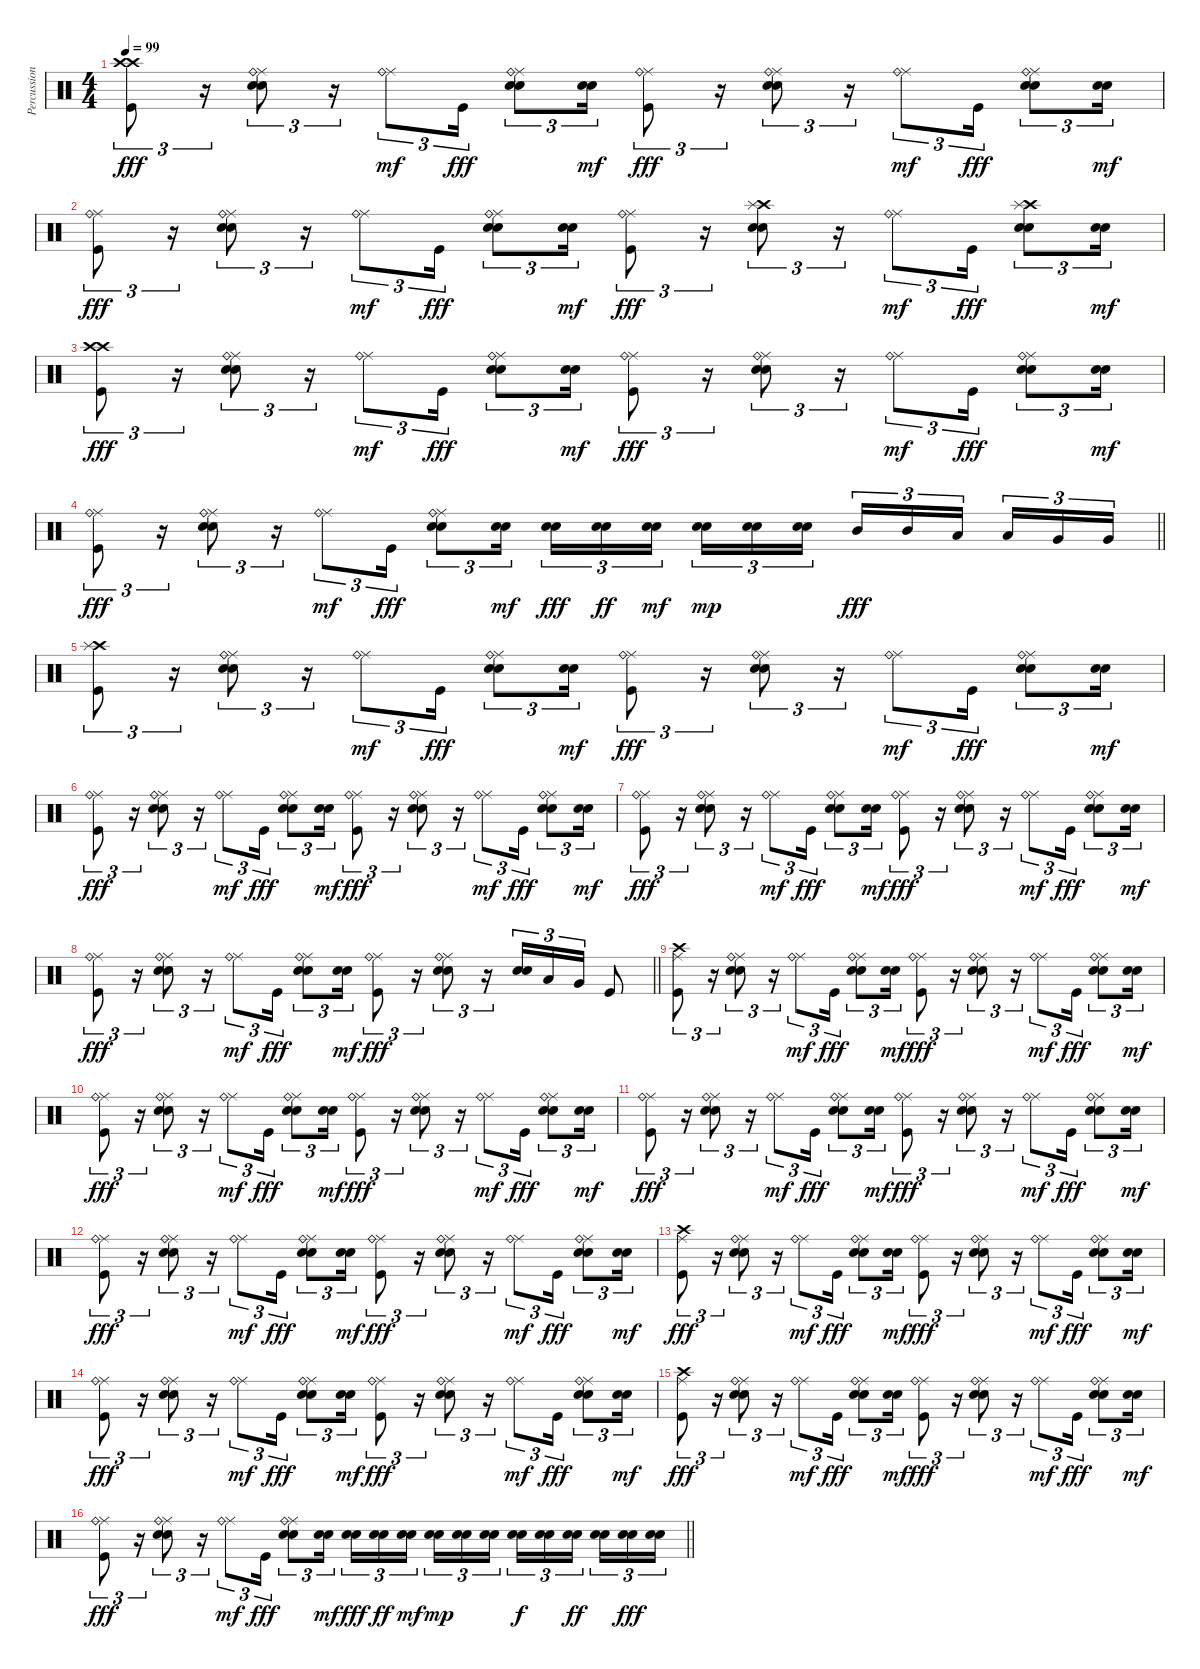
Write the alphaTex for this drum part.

\track ("Percussion" "Percussion") {instrument percussion}
\staff {score}
\articulation defaults
\ts (4 4)
\tempo 99
\clef neutral
\ks c
("Crash high (hit)" "Crash high (hit)" "Kick (hit)").8{tu (3 2) dy fff} r.16{tu (3 2)} ("Ride (middle)" "Ride (bell)" "Snare (hit) 2" "Electric Snare (hit)").8{tu (3 2)} r.16{tu (3 2)} ("Ride (middle)" "Ride (bell)").8{tu (3 2) dy mf} "Kick (hit)".16{tu (3 2) dy fff} ("Ride (middle)" "Ride (bell)" "Snare (hit) 2" "Electric Snare (hit)").8{tu (3 2)} ("Snare (hit) 2" "Electric Snare (hit)").16{tu (3 2) dy mf} ("Ride (middle)" "Ride (bell)" "Kick (hit)").8{tu (3 2) dy fff} r.16{tu (3 2)} ("Ride (middle)" "Ride (bell)" "Snare (hit) 2" "Electric Snare (hit)").8{tu (3 2)} r.16{tu (3 2)} ("Ride (middle)" "Ride (bell)").8{tu (3 2) dy mf} "Kick (hit)".16{tu (3 2) dy fff} ("Ride (middle)" "Ride (bell)" "Snare (hit) 2" "Electric Snare (hit)").8{tu (3 2)} ("Snare (hit) 2" "Electric Snare (hit)").16{tu (3 2) dy mf} |
("Ride (middle)" "Ride (bell)" "Kick (hit)").8{tu (3 2) dy fff} r.16{tu (3 2)} ("Ride (middle)" "Ride (bell)" "Snare (hit) 2" "Electric Snare (hit)").8{tu (3 2)} r.16{tu (3 2)} ("Ride (middle)" "Ride (bell)").8{tu (3 2) dy mf} "Kick (hit)".16{tu (3 2) dy fff} ("Ride (middle)" "Ride (bell)" "Snare (hit) 2" "Electric Snare (hit)").8{tu (3 2)} ("Snare (hit) 2" "Electric Snare (hit)").16{tu (3 2) dy mf} ("Ride (middle)" "Ride (bell)" "Kick (hit)").8{tu (3 2) dy fff} r.16{tu (3 2)} ("Crash high (hit)" "Splash (hit)" "Snare (hit) 2" "Electric Snare (hit)").8{tu (3 2)} r.16{tu (3 2)} ("Ride (middle)" "Ride (bell)").8{tu (3 2) dy mf} "Kick (hit)".16{tu (3 2) dy fff} ("Crash high (hit)" "Splash (hit)" "Snare (hit) 2" "Electric Snare (hit)").8{tu (3 2)} ("Snare (hit) 2" "Electric Snare (hit)").16{tu (3 2) dy mf} |
("Crash high (hit)" "Crash high (hit)" "Kick (hit)").8{tu (3 2) dy fff} r.16{tu (3 2)} ("Ride (middle)" "Ride (bell)" "Snare (hit) 2" "Electric Snare (hit)").8{tu (3 2)} r.16{tu (3 2)} ("Ride (middle)" "Ride (bell)").8{tu (3 2) dy mf} "Kick (hit)".16{tu (3 2) dy fff} ("Ride (middle)" "Ride (bell)" "Snare (hit) 2" "Electric Snare (hit)").8{tu (3 2)} ("Snare (hit) 2" "Electric Snare (hit)").16{tu (3 2) dy mf} ("Ride (middle)" "Ride (bell)" "Kick (hit)").8{tu (3 2) dy fff} r.16{tu (3 2)} ("Ride (middle)" "Ride (bell)" "Snare (hit) 2" "Electric Snare (hit)").8{tu (3 2)} r.16{tu (3 2)} ("Ride (middle)" "Ride (bell)").8{tu (3 2) dy mf} "Kick (hit)".16{tu (3 2) dy fff} ("Ride (middle)" "Ride (bell)" "Snare (hit) 2" "Electric Snare (hit)").8{tu (3 2)} ("Snare (hit) 2" "Electric Snare (hit)").16{tu (3 2) dy mf} |
\barLineRight lightlight
("Ride (middle)" "Ride (bell)" "Kick (hit)").8{tu (3 2) dy fff} r.16{tu (3 2)} ("Ride (middle)" "Ride (bell)" "Snare (hit) 2" "Electric Snare (hit)").8{tu (3 2)} r.16{tu (3 2)} ("Ride (middle)" "Ride (bell)").8{tu (3 2) dy mf} "Kick (hit)".16{tu (3 2) dy fff} ("Ride (middle)" "Ride (bell)" "Snare (hit) 2" "Electric Snare (hit)").8{tu (3 2)} ("Snare (hit) 2" "Electric Snare (hit)").16{tu (3 2) dy mf} ("Snare (hit) 2" "Electric Snare (hit)").16{tu (3 2) dy fff} ("Snare (hit) 2" "Electric Snare (hit)").16{tu (3 2) dy ff} ("Snare (hit) 2" "Electric Snare (hit)").16{tu (3 2) dy mf beam splitsecondary} ("Snare (hit) 2" "Electric Snare (hit)").16{tu (3 2) dy mp} ("Snare (hit) 2" "Electric Snare (hit)").16{tu (3 2)} ("Snare (hit) 2" "Electric Snare (hit)").16{tu (3 2)} "Mid Tom (hit)".16{tu (3 2) dy fff} "Mid Tom (hit)".16{tu (3 2)} "Low Tom (hit)".16{tu (3 2) beam splitsecondary} "Low Tom (hit)".16{tu (3 2)} "Very Low Tom (hit)".16{tu (3 2)} "Very Low Tom (hit)".16{tu (3 2)} |
("Crash high (hit)" "Splash (hit)" "Kick (hit)").8{tu (3 2)} r.16{tu (3 2)} ("Ride (middle)" "Ride (bell)" "Snare (hit) 2" "Electric Snare (hit)").8{tu (3 2)} r.16{tu (3 2)} ("Ride (middle)" "Ride (bell)").8{tu (3 2) dy mf} "Kick (hit)".16{tu (3 2) dy fff} ("Ride (middle)" "Ride (bell)" "Snare (hit) 2" "Electric Snare (hit)").8{tu (3 2)} ("Snare (hit) 2" "Electric Snare (hit)").16{tu (3 2) dy mf} ("Ride (middle)" "Ride (bell)" "Kick (hit)").8{tu (3 2) dy fff} r.16{tu (3 2)} ("Ride (middle)" "Ride (bell)" "Snare (hit) 2" "Electric Snare (hit)").8{tu (3 2)} r.16{tu (3 2)} ("Ride (middle)" "Ride (bell)").8{tu (3 2) dy mf} "Kick (hit)".16{tu (3 2) dy fff} ("Ride (middle)" "Ride (bell)" "Snare (hit) 2" "Electric Snare (hit)").8{tu (3 2)} ("Snare (hit) 2" "Electric Snare (hit)").16{tu (3 2) dy mf} |
("Ride (middle)" "Ride (bell)" "Kick (hit)").8{tu (3 2) dy fff} r.16{tu (3 2)} ("Ride (middle)" "Ride (bell)" "Snare (hit) 2" "Electric Snare (hit)").8{tu (3 2)} r.16{tu (3 2)} ("Ride (middle)" "Ride (bell)").8{tu (3 2) dy mf} "Kick (hit)".16{tu (3 2) dy fff} ("Ride (middle)" "Ride (bell)" "Snare (hit) 2" "Electric Snare (hit)").8{tu (3 2)} ("Snare (hit) 2" "Electric Snare (hit)").16{tu (3 2) dy mf} ("Ride (middle)" "Ride (bell)" "Kick (hit)").8{tu (3 2) dy fff} r.16{tu (3 2)} ("Ride (middle)" "Ride (bell)" "Snare (hit) 2" "Electric Snare (hit)").8{tu (3 2)} r.16{tu (3 2)} ("Ride (middle)" "Ride (bell)").8{tu (3 2) dy mf} "Kick (hit)".16{tu (3 2) dy fff} ("Ride (middle)" "Ride (bell)" "Snare (hit) 2" "Electric Snare (hit)").8{tu (3 2)} ("Snare (hit) 2" "Electric Snare (hit)").16{tu (3 2) dy mf} |
("Ride (middle)" "Ride (bell)" "Kick (hit)").8{tu (3 2) dy fff} r.16{tu (3 2)} ("Ride (middle)" "Ride (bell)" "Snare (hit) 2" "Electric Snare (hit)").8{tu (3 2)} r.16{tu (3 2)} ("Ride (middle)" "Ride (bell)").8{tu (3 2) dy mf} "Kick (hit)".16{tu (3 2) dy fff} ("Ride (middle)" "Ride (bell)" "Snare (hit) 2" "Electric Snare (hit)").8{tu (3 2)} ("Snare (hit) 2" "Electric Snare (hit)").16{tu (3 2) dy mf} ("Ride (middle)" "Ride (bell)" "Kick (hit)").8{tu (3 2) dy fff} r.16{tu (3 2)} ("Ride (middle)" "Ride (bell)" "Snare (hit) 2" "Electric Snare (hit)").8{tu (3 2)} r.16{tu (3 2)} ("Ride (middle)" "Ride (bell)").8{tu (3 2) dy mf} "Kick (hit)".16{tu (3 2) dy fff} ("Ride (middle)" "Ride (bell)" "Snare (hit) 2" "Electric Snare (hit)").8{tu (3 2)} ("Snare (hit) 2" "Electric Snare (hit)").16{tu (3 2) dy mf} |
\barLineRight lightlight
("Ride (middle)" "Ride (bell)" "Kick (hit)").8{tu (3 2) dy fff} r.16{tu (3 2)} ("Ride (middle)" "Ride (bell)" "Snare (hit) 2" "Electric Snare (hit)").8{tu (3 2)} r.16{tu (3 2)} ("Ride (middle)" "Ride (bell)").8{tu (3 2) dy mf} "Kick (hit)".16{tu (3 2) dy fff} ("Ride (middle)" "Ride (bell)" "Snare (hit) 2" "Electric Snare (hit)").8{tu (3 2)} ("Snare (hit) 2" "Electric Snare (hit)").16{tu (3 2) dy mf} ("Ride (middle)" "Ride (bell)" "Kick (hit)").8{tu (3 2) dy fff} r.16{tu (3 2)} ("Ride (middle)" "Ride (bell)" "Snare (hit) 2" "Electric Snare (hit)").8{tu (3 2)} r.16{tu (3 2)} ("Snare (hit) 2" "Electric Snare (hit)").16{tu (3 2)} "Low Tom (hit)".16{tu (3 2)} "Very Low Tom (hit)".16{tu (3 2)} "Kick (hit)".8 |
("Ride (middle)" "Crash high (hit)" "Kick (hit)").8{tu (3 2)} r.16{tu (3 2)} ("Ride (middle)" "Ride (bell)" "Snare (hit) 2" "Electric Snare (hit)").8{tu (3 2)} r.16{tu (3 2)} ("Ride (middle)" "Ride (bell)").8{tu (3 2) dy mf} "Kick (hit)".16{tu (3 2) dy fff} ("Ride (middle)" "Ride (bell)" "Snare (hit) 2" "Electric Snare (hit)").8{tu (3 2)} ("Snare (hit) 2" "Electric Snare (hit)").16{tu (3 2) dy mf} ("Ride (middle)" "Ride (bell)" "Kick (hit)").8{tu (3 2) dy fff} r.16{tu (3 2)} ("Ride (middle)" "Ride (bell)" "Snare (hit) 2" "Electric Snare (hit)").8{tu (3 2)} r.16{tu (3 2)} ("Ride (middle)" "Ride (bell)").8{tu (3 2) dy mf} "Kick (hit)".16{tu (3 2) dy fff} ("Ride (middle)" "Ride (bell)" "Snare (hit) 2" "Electric Snare (hit)").8{tu (3 2)} ("Snare (hit) 2" "Electric Snare (hit)").16{tu (3 2) dy mf} |
("Ride (middle)" "Ride (bell)" "Kick (hit)").8{tu (3 2) dy fff} r.16{tu (3 2)} ("Ride (middle)" "Ride (bell)" "Snare (hit) 2" "Electric Snare (hit)").8{tu (3 2)} r.16{tu (3 2)} ("Ride (middle)" "Ride (bell)").8{tu (3 2) dy mf} "Kick (hit)".16{tu (3 2) dy fff} ("Ride (middle)" "Ride (bell)" "Snare (hit) 2" "Electric Snare (hit)").8{tu (3 2)} ("Snare (hit) 2" "Electric Snare (hit)").16{tu (3 2) dy mf} ("Ride (middle)" "Ride (bell)" "Kick (hit)").8{tu (3 2) dy fff} r.16{tu (3 2)} ("Ride (middle)" "Ride (bell)" "Snare (hit) 2" "Electric Snare (hit)").8{tu (3 2)} r.16{tu (3 2)} ("Ride (middle)" "Ride (bell)").8{tu (3 2) dy mf} "Kick (hit)".16{tu (3 2) dy fff} ("Ride (middle)" "Ride (bell)" "Snare (hit) 2" "Electric Snare (hit)").8{tu (3 2)} ("Snare (hit) 2" "Electric Snare (hit)").16{tu (3 2) dy mf} |
("Ride (middle)" "Ride (bell)" "Kick (hit)").8{tu (3 2) dy fff} r.16{tu (3 2)} ("Ride (middle)" "Ride (bell)" "Snare (hit) 2" "Electric Snare (hit)").8{tu (3 2)} r.16{tu (3 2)} ("Ride (middle)" "Ride (bell)").8{tu (3 2) dy mf} "Kick (hit)".16{tu (3 2) dy fff} ("Ride (middle)" "Ride (bell)" "Snare (hit) 2" "Electric Snare (hit)").8{tu (3 2)} ("Snare (hit) 2" "Electric Snare (hit)").16{tu (3 2) dy mf} ("Ride (middle)" "Ride (bell)" "Kick (hit)").8{tu (3 2) dy fff} r.16{tu (3 2)} ("Ride (middle)" "Ride (bell)" "Snare (hit) 2" "Electric Snare (hit)").8{tu (3 2)} r.16{tu (3 2)} ("Ride (middle)" "Ride (bell)").8{tu (3 2) dy mf} "Kick (hit)".16{tu (3 2) dy fff} ("Ride (middle)" "Ride (bell)" "Snare (hit) 2" "Electric Snare (hit)").8{tu (3 2)} ("Snare (hit) 2" "Electric Snare (hit)").16{tu (3 2) dy mf} |
("Ride (middle)" "Ride (bell)" "Kick (hit)").8{tu (3 2) dy fff} r.16{tu (3 2)} ("Ride (middle)" "Ride (bell)" "Snare (hit) 2" "Electric Snare (hit)").8{tu (3 2)} r.16{tu (3 2)} ("Ride (middle)" "Ride (bell)").8{tu (3 2) dy mf} "Kick (hit)".16{tu (3 2) dy fff} ("Ride (middle)" "Ride (bell)" "Snare (hit) 2" "Electric Snare (hit)").8{tu (3 2)} ("Snare (hit) 2" "Electric Snare (hit)").16{tu (3 2) dy mf} ("Ride (middle)" "Ride (bell)" "Kick (hit)").8{tu (3 2) dy fff} r.16{tu (3 2)} ("Ride (middle)" "Ride (bell)" "Snare (hit) 2" "Electric Snare (hit)").8{tu (3 2)} r.16{tu (3 2)} ("Ride (middle)" "Ride (bell)").8{tu (3 2) dy mf} "Kick (hit)".16{tu (3 2) dy fff} ("Ride (middle)" "Ride (bell)" "Snare (hit) 2" "Electric Snare (hit)").8{tu (3 2)} ("Snare (hit) 2" "Electric Snare (hit)").16{tu (3 2) dy mf} |
("Ride (middle)" "Crash high (hit)" "Kick (hit)").8{tu (3 2) dy fff} r.16{tu (3 2)} ("Ride (middle)" "Ride (bell)" "Snare (hit) 2" "Electric Snare (hit)").8{tu (3 2)} r.16{tu (3 2)} ("Ride (middle)" "Ride (bell)").8{tu (3 2) dy mf} "Kick (hit)".16{tu (3 2) dy fff} ("Ride (middle)" "Ride (bell)" "Snare (hit) 2" "Electric Snare (hit)").8{tu (3 2)} ("Snare (hit) 2" "Electric Snare (hit)").16{tu (3 2) dy mf} ("Ride (middle)" "Ride (bell)" "Kick (hit)").8{tu (3 2) dy fff} r.16{tu (3 2)} ("Ride (middle)" "Ride (bell)" "Snare (hit) 2" "Electric Snare (hit)").8{tu (3 2)} r.16{tu (3 2)} ("Ride (middle)" "Ride (bell)").8{tu (3 2) dy mf} "Kick (hit)".16{tu (3 2) dy fff} ("Ride (middle)" "Ride (bell)" "Snare (hit) 2" "Electric Snare (hit)").8{tu (3 2)} ("Snare (hit) 2" "Electric Snare (hit)").16{tu (3 2) dy mf} |
("Ride (middle)" "Ride (bell)" "Kick (hit)").8{tu (3 2) dy fff} r.16{tu (3 2)} ("Ride (middle)" "Ride (bell)" "Snare (hit) 2" "Electric Snare (hit)").8{tu (3 2)} r.16{tu (3 2)} ("Ride (middle)" "Ride (bell)").8{tu (3 2) dy mf} "Kick (hit)".16{tu (3 2) dy fff} ("Ride (middle)" "Ride (bell)" "Snare (hit) 2" "Electric Snare (hit)").8{tu (3 2)} ("Snare (hit) 2" "Electric Snare (hit)").16{tu (3 2) dy mf} ("Ride (middle)" "Ride (bell)" "Kick (hit)").8{tu (3 2) dy fff} r.16{tu (3 2)} ("Ride (middle)" "Ride (bell)" "Snare (hit) 2" "Electric Snare (hit)").8{tu (3 2)} r.16{tu (3 2)} ("Ride (middle)" "Ride (bell)").8{tu (3 2) dy mf} "Kick (hit)".16{tu (3 2) dy fff} ("Ride (middle)" "Ride (bell)" "Snare (hit) 2" "Electric Snare (hit)").8{tu (3 2)} ("Snare (hit) 2" "Electric Snare (hit)").16{tu (3 2) dy mf} |
("Ride (middle)" "Crash high (hit)" "Kick (hit)").8{tu (3 2) dy fff} r.16{tu (3 2)} ("Ride (middle)" "Ride (bell)" "Snare (hit) 2" "Electric Snare (hit)").8{tu (3 2)} r.16{tu (3 2)} ("Ride (middle)" "Ride (bell)").8{tu (3 2) dy mf} "Kick (hit)".16{tu (3 2) dy fff} ("Ride (middle)" "Ride (bell)" "Snare (hit) 2" "Electric Snare (hit)").8{tu (3 2)} ("Snare (hit) 2" "Electric Snare (hit)").16{tu (3 2) dy mf} ("Ride (middle)" "Ride (bell)" "Kick (hit)").8{tu (3 2) dy fff} r.16{tu (3 2)} ("Ride (middle)" "Ride (bell)" "Snare (hit) 2" "Electric Snare (hit)").8{tu (3 2)} r.16{tu (3 2)} ("Ride (middle)" "Ride (bell)").8{tu (3 2) dy mf} "Kick (hit)".16{tu (3 2) dy fff} ("Ride (middle)" "Ride (bell)" "Snare (hit) 2" "Electric Snare (hit)").8{tu (3 2)} ("Snare (hit) 2" "Electric Snare (hit)").16{tu (3 2) dy mf} |
\barLineRight lightlight
("Ride (middle)" "Ride (bell)" "Kick (hit)").8{tu (3 2) dy fff} r.16{tu (3 2)} ("Ride (middle)" "Ride (bell)" "Snare (hit) 2" "Electric Snare (hit)").8{tu (3 2)} r.16{tu (3 2)} ("Ride (middle)" "Ride (bell)").8{tu (3 2) dy mf} "Kick (hit)".16{tu (3 2) dy fff} ("Ride (middle)" "Ride (bell)" "Snare (hit) 2" "Electric Snare (hit)").8{tu (3 2)} ("Snare (hit) 2" "Electric Snare (hit)").16{tu (3 2) dy mf} ("Snare (hit) 2" "Electric Snare (hit)").16{tu (3 2) dy fff} ("Snare (hit) 2" "Electric Snare (hit)").16{tu (3 2) dy ff} ("Snare (hit) 2" "Electric Snare (hit)").16{tu (3 2) dy mf beam splitsecondary} ("Snare (hit) 2" "Electric Snare (hit)").16{tu (3 2) dy mp} ("Snare (hit) 2" "Electric Snare (hit)").16{tu (3 2)} ("Snare (hit) 2" "Electric Snare (hit)").16{tu (3 2)} ("Snare (hit) 2" "Electric Snare (hit)").16{tu (3 2) dy f} ("Snare (hit) 2" "Electric Snare (hit)").16{tu (3 2)} ("Snare (hit) 2" "Electric Snare (hit)").16{tu (3 2) dy ff beam splitsecondary} ("Snare (hit) 2" "Electric Snare (hit)").16{tu (3 2)} ("Snare (hit) 2" "Electric Snare (hit)").16{tu (3 2) dy fff} ("Snare (hit) 2" "Electric Snare (hit)").16{tu (3 2)}
